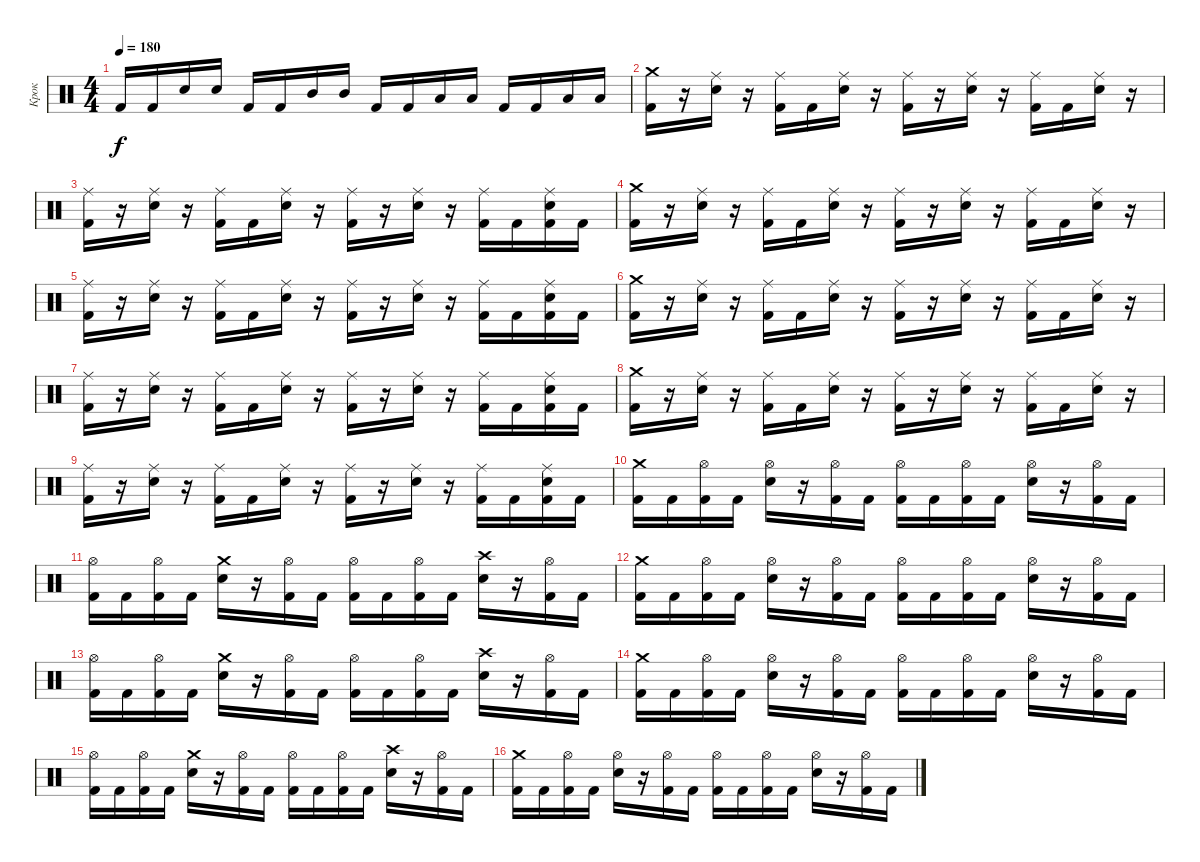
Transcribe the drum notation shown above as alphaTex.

\track ("Крок" "Крок") {instrument percussion}
\staff {score}
\articulation defaults
\ts (4 4)
\tempo 180
\clef neutral
\ks c "Kick (hit) 2".16{dy f} "Kick (hit) 2".16 "Electric Snare (hit)".16 "Electric Snare (hit)".16 "Kick (hit) 2".16 "Kick (hit) 2".16 "Mid Tom (hit)".16 "Mid Tom (hit)".16 "Kick (hit) 2".16 "Kick (hit) 2".16 "Low Tom (hit)".16 "Low Tom (hit)".16 "Kick (hit) 2".16 "Kick (hit) 2".16 "Low Floor Tom (hit)".16 "Low Floor Tom (hit)".16
|
("Kick (hit) 2" "Crash medium (hit)").16 r.16 ("Electric Snare (hit)" "Ride (middle)").16 r.16 ("Kick (hit) 2" "Ride (middle)").16 "Kick (hit) 2".16 ("Electric Snare (hit)" "Ride (middle)").16 r.16 ("Kick (hit) 2" "Ride (middle)").16 r.16 ("Electric Snare (hit)" "Ride (middle)").16 r.16 ("Kick (hit) 2" "Ride (middle)").16 "Kick (hit) 2".16 ("Electric Snare (hit)" "Ride (middle)").16 r.16 |
("Kick (hit) 2" "Ride (middle)").16 r.16 ("Electric Snare (hit)" "Ride (middle)").16 r.16 ("Kick (hit) 2" "Ride (middle)").16 "Kick (hit) 2".16 ("Electric Snare (hit)" "Ride (middle)").16 r.16 ("Kick (hit) 2" "Ride (middle)").16 r.16 ("Electric Snare (hit)" "Ride (middle)").16 r.16 ("Kick (hit) 2" "Ride (middle)").16 "Kick (hit) 2".16 ("Kick (hit) 2" "Electric Snare (hit)" "Ride (middle)").16 "Kick (hit) 2".16 |
("Kick (hit) 2" "Crash medium (hit)").16 r.16 ("Electric Snare (hit)" "Ride (middle)").16 r.16 ("Kick (hit) 2" "Ride (middle)").16 "Kick (hit) 2".16 ("Electric Snare (hit)" "Ride (middle)").16 r.16 ("Kick (hit) 2" "Ride (middle)").16 r.16 ("Electric Snare (hit)" "Ride (middle)").16 r.16 ("Kick (hit) 2" "Ride (middle)").16 "Kick (hit) 2".16 ("Electric Snare (hit)" "Ride (middle)").16 r.16 |
("Kick (hit) 2" "Ride (middle)").16 r.16 ("Electric Snare (hit)" "Ride (middle)").16 r.16 ("Kick (hit) 2" "Ride (middle)").16 "Kick (hit) 2".16 ("Electric Snare (hit)" "Ride (middle)").16 r.16 ("Kick (hit) 2" "Ride (middle)").16 r.16 ("Electric Snare (hit)" "Ride (middle)").16 r.16 ("Kick (hit) 2" "Ride (middle)").16 "Kick (hit) 2".16 ("Kick (hit) 2" "Electric Snare (hit)" "Ride (middle)").16 "Kick (hit) 2".16 |
("Kick (hit) 2" "Crash medium (hit)").16 r.16 ("Electric Snare (hit)" "Ride (middle)").16 r.16 ("Kick (hit) 2" "Ride (middle)").16 "Kick (hit) 2".16 ("Electric Snare (hit)" "Ride (middle)").16 r.16 ("Kick (hit) 2" "Ride (middle)").16 r.16 ("Electric Snare (hit)" "Ride (middle)").16 r.16 ("Kick (hit) 2" "Ride (middle)").16 "Kick (hit) 2".16 ("Electric Snare (hit)" "Ride (middle)").16 r.16 |
("Kick (hit) 2" "Ride (middle)").16 r.16 ("Electric Snare (hit)" "Ride (middle)").16 r.16 ("Kick (hit) 2" "Ride (middle)").16 "Kick (hit) 2".16 ("Electric Snare (hit)" "Ride (middle)").16 r.16 ("Kick (hit) 2" "Ride (middle)").16 r.16 ("Electric Snare (hit)" "Ride (middle)").16 r.16 ("Kick (hit) 2" "Ride (middle)").16 "Kick (hit) 2".16 ("Kick (hit) 2" "Electric Snare (hit)" "Ride (middle)").16 "Kick (hit) 2".16 |
("Kick (hit) 2" "Crash medium (hit)").16 r.16 ("Electric Snare (hit)" "Ride (middle)").16 r.16 ("Kick (hit) 2" "Ride (middle)").16 "Kick (hit) 2".16 ("Electric Snare (hit)" "Ride (middle)").16 r.16 ("Kick (hit) 2" "Ride (middle)").16 r.16 ("Electric Snare (hit)" "Ride (middle)").16 r.16 ("Kick (hit) 2" "Ride (middle)").16 "Kick (hit) 2".16 ("Electric Snare (hit)" "Ride (middle)").16 r.16 |
("Kick (hit) 2" "Ride (middle)").16 r.16 ("Electric Snare (hit)" "Ride (middle)").16 r.16 ("Kick (hit) 2" "Ride (middle)").16 "Kick (hit) 2".16 ("Electric Snare (hit)" "Ride (middle)").16 r.16 ("Kick (hit) 2" "Ride (middle)").16 r.16 ("Electric Snare (hit)" "Ride (middle)").16 r.16 ("Kick (hit) 2" "Ride (middle)").16 "Kick (hit) 2".16 ("Kick (hit) 2" "Electric Snare (hit)" "Ride (middle)").16 "Kick (hit) 2".16 |
("Kick (hit) 2" "Crash medium (hit)").16 "Kick (hit) 2".16 ("Kick (hit) 2" "Hi-Hat (open)").16 "Kick (hit) 2".16 ("Electric Snare (hit)" "Hi-Hat (open)").16 r.16 ("Kick (hit) 2" "Hi-Hat (open)").16 "Kick (hit) 2".16 ("Kick (hit) 2" "Hi-Hat (open)").16 "Kick (hit) 2".16 ("Kick (hit) 2" "Hi-Hat (open)").16 "Kick (hit) 2".16 ("Electric Snare (hit)" "Hi-Hat (open)").16 r.16 ("Kick (hit) 2" "Hi-Hat (open)").16 "Kick (hit) 2".16 |
("Kick (hit) 2" "Hi-Hat (open)").16 "Kick (hit) 2".16 ("Kick (hit) 2" "Hi-Hat (open)").16 "Kick (hit) 2".16 ("Electric Snare (hit)" "Crash medium (hit)").16 r.16 ("Kick (hit) 2" "Hi-Hat (open)").16 "Kick (hit) 2".16 ("Kick (hit) 2" "Hi-Hat (open)").16 "Kick (hit) 2".16 ("Kick (hit) 2" "Hi-Hat (open)").16 "Kick (hit) 2".16 ("Electric Snare (hit)" "Crash high (hit)").16 r.16 ("Kick (hit) 2" "Hi-Hat (open)").16 "Kick (hit) 2".16 |
("Kick (hit) 2" "Crash medium (hit)").16 "Kick (hit) 2".16 ("Kick (hit) 2" "Hi-Hat (open)").16 "Kick (hit) 2".16 ("Electric Snare (hit)" "Hi-Hat (open)").16 r.16 ("Kick (hit) 2" "Hi-Hat (open)").16 "Kick (hit) 2".16 ("Kick (hit) 2" "Hi-Hat (open)").16 "Kick (hit) 2".16 ("Kick (hit) 2" "Hi-Hat (open)").16 "Kick (hit) 2".16 ("Electric Snare (hit)" "Hi-Hat (open)").16 r.16 ("Kick (hit) 2" "Hi-Hat (open)").16 "Kick (hit) 2".16 |
("Kick (hit) 2" "Hi-Hat (open)").16 "Kick (hit) 2".16 ("Kick (hit) 2" "Hi-Hat (open)").16 "Kick (hit) 2".16 ("Electric Snare (hit)" "Crash medium (hit)").16 r.16 ("Kick (hit) 2" "Hi-Hat (open)").16 "Kick (hit) 2".16 ("Kick (hit) 2" "Hi-Hat (open)").16 "Kick (hit) 2".16 ("Kick (hit) 2" "Hi-Hat (open)").16 "Kick (hit) 2".16 ("Electric Snare (hit)" "Crash high (hit)").16 r.16 ("Kick (hit) 2" "Hi-Hat (open)").16 "Kick (hit) 2".16 |
("Kick (hit) 2" "Crash medium (hit)").16 "Kick (hit) 2".16 ("Kick (hit) 2" "Hi-Hat (open)").16 "Kick (hit) 2".16 ("Electric Snare (hit)" "Hi-Hat (open)").16 r.16 ("Kick (hit) 2" "Hi-Hat (open)").16 "Kick (hit) 2".16 ("Kick (hit) 2" "Hi-Hat (open)").16 "Kick (hit) 2".16 ("Kick (hit) 2" "Hi-Hat (open)").16 "Kick (hit) 2".16 ("Electric Snare (hit)" "Hi-Hat (open)").16 r.16 ("Kick (hit) 2" "Hi-Hat (open)").16 "Kick (hit) 2".16 |
("Kick (hit) 2" "Hi-Hat (open)").16 "Kick (hit) 2".16 ("Kick (hit) 2" "Hi-Hat (open)").16 "Kick (hit) 2".16 ("Electric Snare (hit)" "Crash medium (hit)").16 r.16 ("Kick (hit) 2" "Hi-Hat (open)").16 "Kick (hit) 2".16 ("Kick (hit) 2" "Hi-Hat (open)").16 "Kick (hit) 2".16 ("Kick (hit) 2" "Hi-Hat (open)").16 "Kick (hit) 2".16 ("Electric Snare (hit)" "Crash high (hit)").16 r.16 ("Kick (hit) 2" "Hi-Hat (open)").16 "Kick (hit) 2".16 |
("Kick (hit) 2" "Crash medium (hit)").16 "Kick (hit) 2".16 ("Kick (hit) 2" "Hi-Hat (open)").16 "Kick (hit) 2".16 ("Electric Snare (hit)" "Hi-Hat (open)").16 r.16 ("Kick (hit) 2" "Hi-Hat (open)").16 "Kick (hit) 2".16 ("Kick (hit) 2" "Hi-Hat (open)").16 "Kick (hit) 2".16 ("Kick (hit) 2" "Hi-Hat (open)").16 "Kick (hit) 2".16 ("Electric Snare (hit)" "Hi-Hat (open)").16 r.16 ("Kick (hit) 2" "Hi-Hat (open)").16 "Kick (hit) 2".16
